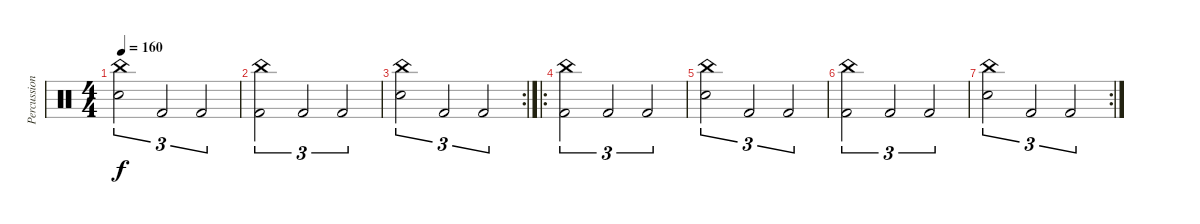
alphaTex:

\track ("Percussion" "Percussion") {instrument percussion}
\staff {score}
\articulation defaults
\ts (4 4)
\tempo 160
\clef neutral
\ks c
("China (hit)" "Snare (hit) 2").2{tu (3 2) dy f} "Kick (hit) 2".2{tu (3 2)} "Kick (hit) 2".2{tu (3 2)} |
("China (hit)" "Kick (hit) 2").2{tu (3 2)} "Kick (hit) 2".2{tu (3 2)} "Kick (hit) 2".2{tu (3 2)} |
\rc 2
("China (hit)" "Snare (hit) 2").2{tu (3 2)} "Kick (hit) 2".2{tu (3 2)} "Kick (hit) 2".2{tu (3 2)} |
\ro
("China (hit)" "Kick (hit) 2").2{tu (3 2)} "Kick (hit) 2".2{tu (3 2)} "Kick (hit) 2".2{tu (3 2)} |
("China (hit)" "Snare (hit) 2").2{tu (3 2)} "Kick (hit) 2".2{tu (3 2)} "Kick (hit) 2".2{tu (3 2)} |
("China (hit)" "Kick (hit) 2").2{tu (3 2)} "Kick (hit) 2".2{tu (3 2)} "Kick (hit) 2".2{tu (3 2)} |
\rc 2
("China (hit)" "Snare (hit) 2").2{tu (3 2)} "Kick (hit) 2".2{tu (3 2)} "Kick (hit) 2".2{tu (3 2)}
